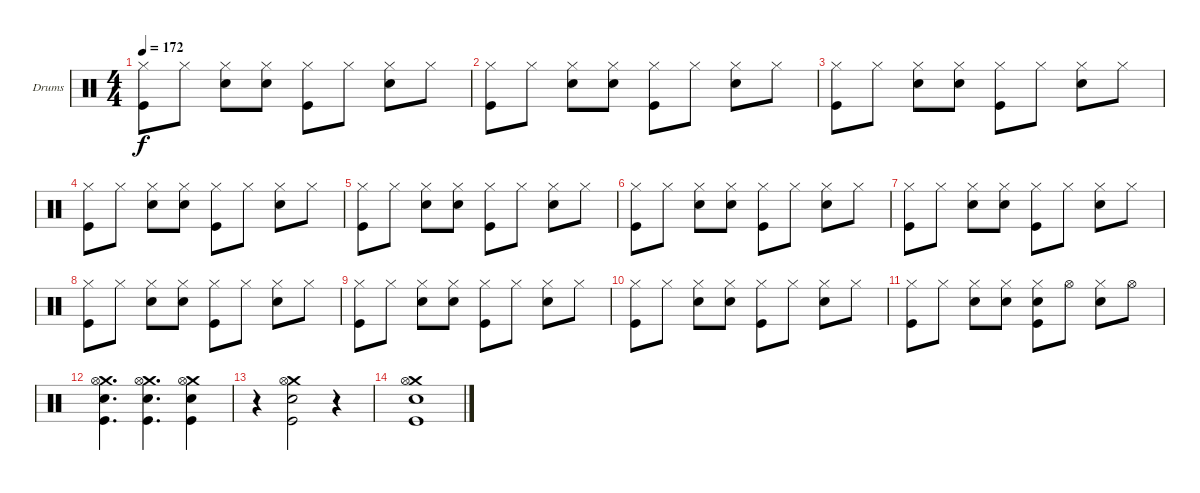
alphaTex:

\bracketExtendMode groupsimilarinstruments
\firstSystemTrackNameOrientation horizontal
\otherSystemsTrackNameOrientation horizontal
\track ("Drumkit" "Drums") {instrument percussion}
\staff {score}
\articulation defaults
\ts (4 4)
\tempo 172
\clef neutral
\ks c
("Hi-Hat (closed)" "Kick (hit)").8{dy f} "Hi-Hat (closed)".8 ("Snare (hit) 2" "Hi-Hat (closed)").8 ("Snare (hit) 2" "Hi-Hat (closed)").8 ("Hi-Hat (closed)" "Kick (hit)").8 "Hi-Hat (closed)".8 ("Snare (hit) 2" "Hi-Hat (closed)").8 "Hi-Hat (closed)".8 |
("Hi-Hat (closed)" "Kick (hit)").8 "Hi-Hat (closed)".8 ("Snare (hit) 2" "Hi-Hat (closed)").8 ("Snare (hit) 2" "Hi-Hat (closed)").8 ("Hi-Hat (closed)" "Kick (hit)").8 "Hi-Hat (closed)".8 ("Snare (hit) 2" "Hi-Hat (closed)").8 "Hi-Hat (closed)".8 |
("Hi-Hat (closed)" "Kick (hit)").8 "Hi-Hat (closed)".8 ("Snare (hit) 2" "Hi-Hat (closed)").8 ("Snare (hit) 2" "Hi-Hat (closed)").8 ("Hi-Hat (closed)" "Kick (hit)").8 "Hi-Hat (closed)".8 ("Snare (hit) 2" "Hi-Hat (closed)").8 "Hi-Hat (closed)".8 |
("Hi-Hat (closed)" "Kick (hit)").8 "Hi-Hat (closed)".8 ("Snare (hit) 2" "Hi-Hat (closed)").8 ("Snare (hit) 2" "Hi-Hat (closed)").8 ("Hi-Hat (closed)" "Kick (hit)").8 "Hi-Hat (closed)".8 ("Snare (hit) 2" "Hi-Hat (closed)").8 "Hi-Hat (closed)".8 |
("Hi-Hat (closed)" "Kick (hit)").8 "Hi-Hat (closed)".8 ("Snare (hit) 2" "Hi-Hat (closed)").8 ("Snare (hit) 2" "Hi-Hat (closed)").8 ("Hi-Hat (closed)" "Kick (hit)").8 "Hi-Hat (closed)".8 ("Snare (hit) 2" "Hi-Hat (closed)").8 "Hi-Hat (closed)".8 |
("Hi-Hat (closed)" "Kick (hit)").8 "Hi-Hat (closed)".8 ("Snare (hit) 2" "Hi-Hat (closed)").8 ("Snare (hit) 2" "Hi-Hat (closed)").8 ("Hi-Hat (closed)" "Kick (hit)").8 "Hi-Hat (closed)".8 ("Snare (hit) 2" "Hi-Hat (closed)").8 "Hi-Hat (closed)".8 |
("Hi-Hat (closed)" "Kick (hit)").8 "Hi-Hat (closed)".8 ("Snare (hit) 2" "Hi-Hat (closed)").8 ("Snare (hit) 2" "Hi-Hat (closed)").8 ("Hi-Hat (closed)" "Kick (hit)").8 "Hi-Hat (closed)".8 ("Snare (hit) 2" "Hi-Hat (closed)").8 "Hi-Hat (closed)".8 |
("Hi-Hat (closed)" "Kick (hit)").8 "Hi-Hat (closed)".8 ("Snare (hit) 2" "Hi-Hat (closed)").8 ("Snare (hit) 2" "Hi-Hat (closed)").8 ("Hi-Hat (closed)" "Kick (hit)").8 "Hi-Hat (closed)".8 ("Snare (hit) 2" "Hi-Hat (closed)").8 "Hi-Hat (closed)".8 |
("Hi-Hat (closed)" "Kick (hit)").8 "Hi-Hat (closed)".8 ("Snare (hit) 2" "Hi-Hat (closed)").8 ("Snare (hit) 2" "Hi-Hat (closed)").8 ("Hi-Hat (closed)" "Kick (hit)").8 "Hi-Hat (closed)".8 ("Snare (hit) 2" "Hi-Hat (closed)").8 "Hi-Hat (closed)".8 |
("Hi-Hat (closed)" "Kick (hit)").8 "Hi-Hat (closed)".8 ("Snare (hit) 2" "Hi-Hat (closed)").8 ("Snare (hit) 2" "Hi-Hat (closed)").8 ("Hi-Hat (closed)" "Kick (hit)").8 "Hi-Hat (closed)".8 ("Snare (hit) 2" "Hi-Hat (closed)").8 "Hi-Hat (closed)".8 |
("Hi-Hat (closed)" "Kick (hit)").8 "Hi-Hat (closed)".8 ("Snare (hit) 2" "Hi-Hat (closed)").8 ("Snare (hit) 2" "Hi-Hat (closed)").8 ("Snare (hit) 2" "Hi-Hat (closed)" "Kick (hit)").8 "Hi-Hat (open)".8 ("Snare (hit) 2" "Hi-Hat (closed)").8 "Hi-Hat (open)".8 |
("Crash medium (hit)" "Hi-Hat (open)" "Snare (hit) 2" "Kick (hit)").4{d} ("Crash medium (hit)" "Hi-Hat (open)" "Snare (hit) 2" "Kick (hit)").4{d} ("Crash medium (hit)" "Hi-Hat (open)" "Snare (hit) 2" "Kick (hit)").4 |
r.4 ("Crash medium (hit)" "Hi-Hat (open)" "Snare (hit) 2" "Kick (hit)").2 r.4 |
("Crash medium (hit)" "Hi-Hat (open)" "Snare (hit) 2" "Kick (hit)").1
